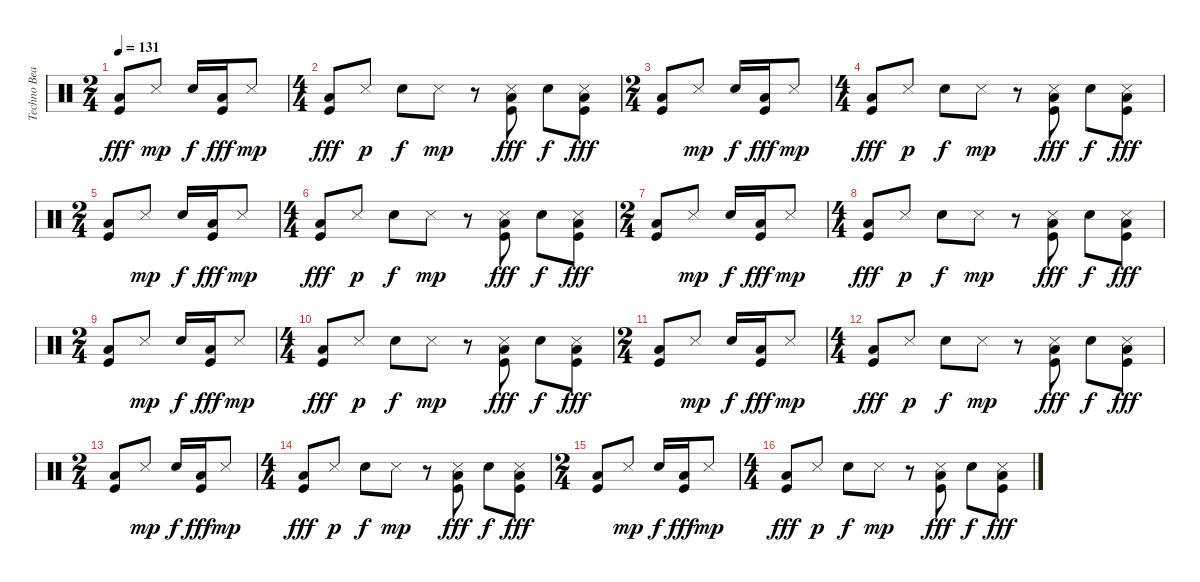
\track ("Techno Beat" "Techno Bea") {instrument percussion}
\staff {score}
\articulation defaults
\ts (2 4)
\tempo 131
\clef neutral
\ks c
("Low Tom (hit)" "Kick (hit)").8{dy fff} "Snare (side stick) 3".8{dy mp} "Electric Snare (hit)".16{dy f} ("Low Tom (hit)" "Kick (hit)").16{dy fff} "Snare (side stick) 3".8{dy mp} |
\ts (4 4)
("Low Tom (hit)" "Kick (hit)").8{dy fff} "Snare (side stick) 3".8{dy p} "Electric Snare (hit)".8{dy f} "Snare (side stick) 3".8{dy mp} r.8 ("Snare (side stick) 3" "Low Tom (hit)" "Kick (hit)").8{dy fff} "Electric Snare (hit)".8{dy f} ("Snare (side stick) 3" "Low Tom (hit)" "Kick (hit)").8{dy fff} |
\ts (2 4)
("Low Tom (hit)" "Kick (hit)").8 "Snare (side stick) 3".8{dy mp} "Electric Snare (hit)".16{dy f} ("Low Tom (hit)" "Kick (hit)").16{dy fff} "Snare (side stick) 3".8{dy mp} |
\ts (4 4)
("Low Tom (hit)" "Kick (hit)").8{dy fff} "Snare (side stick) 3".8{dy p} "Electric Snare (hit)".8{dy f} "Snare (side stick) 3".8{dy mp} r.8 ("Snare (side stick) 3" "Low Tom (hit)" "Kick (hit)").8{dy fff} "Electric Snare (hit)".8{dy f} ("Snare (side stick) 3" "Low Tom (hit)" "Kick (hit)").8{dy fff} |
\ts (2 4)
("Low Tom (hit)" "Kick (hit)").8 "Snare (side stick) 3".8{dy mp} "Electric Snare (hit)".16{dy f} ("Low Tom (hit)" "Kick (hit)").16{dy fff} "Snare (side stick) 3".8{dy mp} |
\ts (4 4)
("Low Tom (hit)" "Kick (hit)").8{dy fff} "Snare (side stick) 3".8{dy p} "Electric Snare (hit)".8{dy f} "Snare (side stick) 3".8{dy mp} r.8 ("Snare (side stick) 3" "Low Tom (hit)" "Kick (hit)").8{dy fff} "Electric Snare (hit)".8{dy f} ("Snare (side stick) 3" "Low Tom (hit)" "Kick (hit)").8{dy fff} |
\ts (2 4)
("Low Tom (hit)" "Kick (hit)").8 "Snare (side stick) 3".8{dy mp} "Electric Snare (hit)".16{dy f} ("Low Tom (hit)" "Kick (hit)").16{dy fff} "Snare (side stick) 3".8{dy mp} |
\ts (4 4)
("Low Tom (hit)" "Kick (hit)").8{dy fff} "Snare (side stick) 3".8{dy p} "Electric Snare (hit)".8{dy f} "Snare (side stick) 3".8{dy mp} r.8 ("Snare (side stick) 3" "Low Tom (hit)" "Kick (hit)").8{dy fff} "Electric Snare (hit)".8{dy f} ("Snare (side stick) 3" "Low Tom (hit)" "Kick (hit)").8{dy fff} |
\ts (2 4)
("Low Tom (hit)" "Kick (hit)").8 "Snare (side stick) 3".8{dy mp} "Electric Snare (hit)".16{dy f} ("Low Tom (hit)" "Kick (hit)").16{dy fff} "Snare (side stick) 3".8{dy mp} |
\ts (4 4)
("Low Tom (hit)" "Kick (hit)").8{dy fff} "Snare (side stick) 3".8{dy p} "Electric Snare (hit)".8{dy f} "Snare (side stick) 3".8{dy mp} r.8 ("Snare (side stick) 3" "Low Tom (hit)" "Kick (hit)").8{dy fff} "Electric Snare (hit)".8{dy f} ("Snare (side stick) 3" "Low Tom (hit)" "Kick (hit)").8{dy fff} |
\ts (2 4)
("Low Tom (hit)" "Kick (hit)").8 "Snare (side stick) 3".8{dy mp} "Electric Snare (hit)".16{dy f} ("Low Tom (hit)" "Kick (hit)").16{dy fff} "Snare (side stick) 3".8{dy mp} |
\ts (4 4)
("Low Tom (hit)" "Kick (hit)").8{dy fff} "Snare (side stick) 3".8{dy p} "Electric Snare (hit)".8{dy f} "Snare (side stick) 3".8{dy mp} r.8 ("Snare (side stick) 3" "Low Tom (hit)" "Kick (hit)").8{dy fff} "Electric Snare (hit)".8{dy f} ("Snare (side stick) 3" "Low Tom (hit)" "Kick (hit)").8{dy fff} |
\ts (2 4)
("Low Tom (hit)" "Kick (hit)").8 "Snare (side stick) 3".8{dy mp} "Electric Snare (hit)".16{dy f} ("Low Tom (hit)" "Kick (hit)").16{dy fff} "Snare (side stick) 3".8{dy mp} |
\ts (4 4)
("Low Tom (hit)" "Kick (hit)").8{dy fff} "Snare (side stick) 3".8{dy p} "Electric Snare (hit)".8{dy f} "Snare (side stick) 3".8{dy mp} r.8 ("Snare (side stick) 3" "Low Tom (hit)" "Kick (hit)").8{dy fff} "Electric Snare (hit)".8{dy f} ("Snare (side stick) 3" "Low Tom (hit)" "Kick (hit)").8{dy fff} |
\ts (2 4)
("Low Tom (hit)" "Kick (hit)").8 "Snare (side stick) 3".8{dy mp} "Electric Snare (hit)".16{dy f} ("Low Tom (hit)" "Kick (hit)").16{dy fff} "Snare (side stick) 3".8{dy mp} |
\ts (4 4)
("Low Tom (hit)" "Kick (hit)").8{dy fff} "Snare (side stick) 3".8{dy p} "Electric Snare (hit)".8{dy f} "Snare (side stick) 3".8{dy mp} r.8 ("Snare (side stick) 3" "Low Tom (hit)" "Kick (hit)").8{dy fff} "Electric Snare (hit)".8{dy f} ("Snare (side stick) 3" "Low Tom (hit)" "Kick (hit)").8{dy fff}
